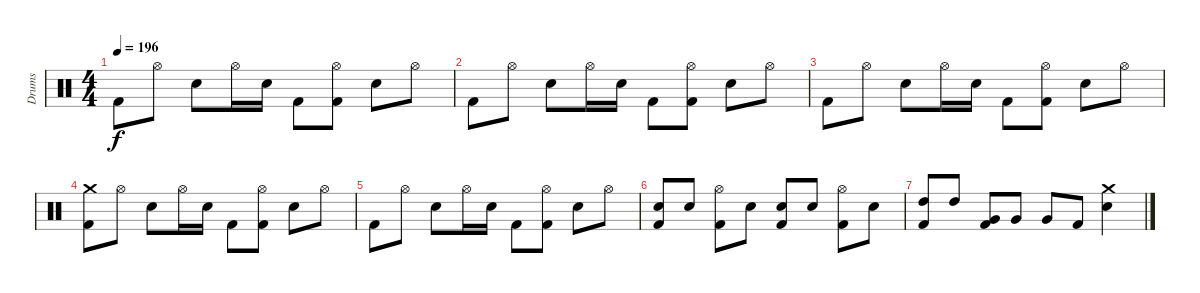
\track ("Drums" "Drums") {instrument percussion}
\staff {score}
\articulation defaults
\ts (4 4)
\tempo 196
\clef neutral
\ks c "Kick (hit) 2".8{dy f} "Hi-Hat (open)".8 "Snare (hit) 2".8 "Hi-Hat (open)".16 "Snare (hit) 2".16 "Kick (hit) 2".8
("Hi-Hat (open)" "Kick (hit) 2").8 "Snare (hit) 2".8 "Hi-Hat (open)".8 |
"Kick (hit) 2".8 "Hi-Hat (open)".8 "Snare (hit) 2".8 "Hi-Hat (open)".16 "Snare (hit) 2".16 "Kick (hit) 2".8 ("Hi-Hat (open)" "Kick (hit) 2").8 "Snare (hit) 2".8 "Hi-Hat (open)".8 |
"Kick (hit) 2".8 "Hi-Hat (open)".8 "Snare (hit) 2".8 "Hi-Hat (open)".16 "Snare (hit) 2".16 "Kick (hit) 2".8 ("Hi-Hat (open)" "Kick (hit) 2").8 "Snare (hit) 2".8 "Hi-Hat (open)".8 |
("Crash medium (hit)" "Kick (hit) 2").8 "Hi-Hat (open)".8 "Snare (hit) 2".8 "Hi-Hat (open)".16 "Snare (hit) 2".16 "Kick (hit) 2".8 ("Hi-Hat (open)" "Kick (hit) 2").8 "Snare (hit) 2".8 "Hi-Hat (open)".8 |
"Kick (hit) 2".8 "Hi-Hat (open)".8 "Snare (hit) 2".8 "Hi-Hat (open)".16 "Snare (hit) 2".16 "Kick (hit) 2".8 ("Hi-Hat (open)" "Kick (hit) 2").8 "Snare (hit) 2".8 "Hi-Hat (open)".8 |
("Snare (hit) 2" "Kick (hit) 2").8 "Snare (hit) 2".8 ("Hi-Hat (open)" "Kick (hit) 2").8 "Snare (hit) 2".8 ("Snare (hit) 2" "Kick (hit) 2").8 "Snare (hit) 2".8 ("Hi-Hat (open)" "Kick (hit) 2").8 "Snare (hit) 2".8 |
("High Tom (hit)" "Kick (hit) 2").8 "High Tom (hit)".8 ("Very Low Tom (hit)" "Kick (hit) 2").8 "Very Low Tom (hit)".8 "Very Low Tom (hit)".8 "Kick (hit) 2".8 ("Crash medium (hit)" "Snare (hit) 2").4
